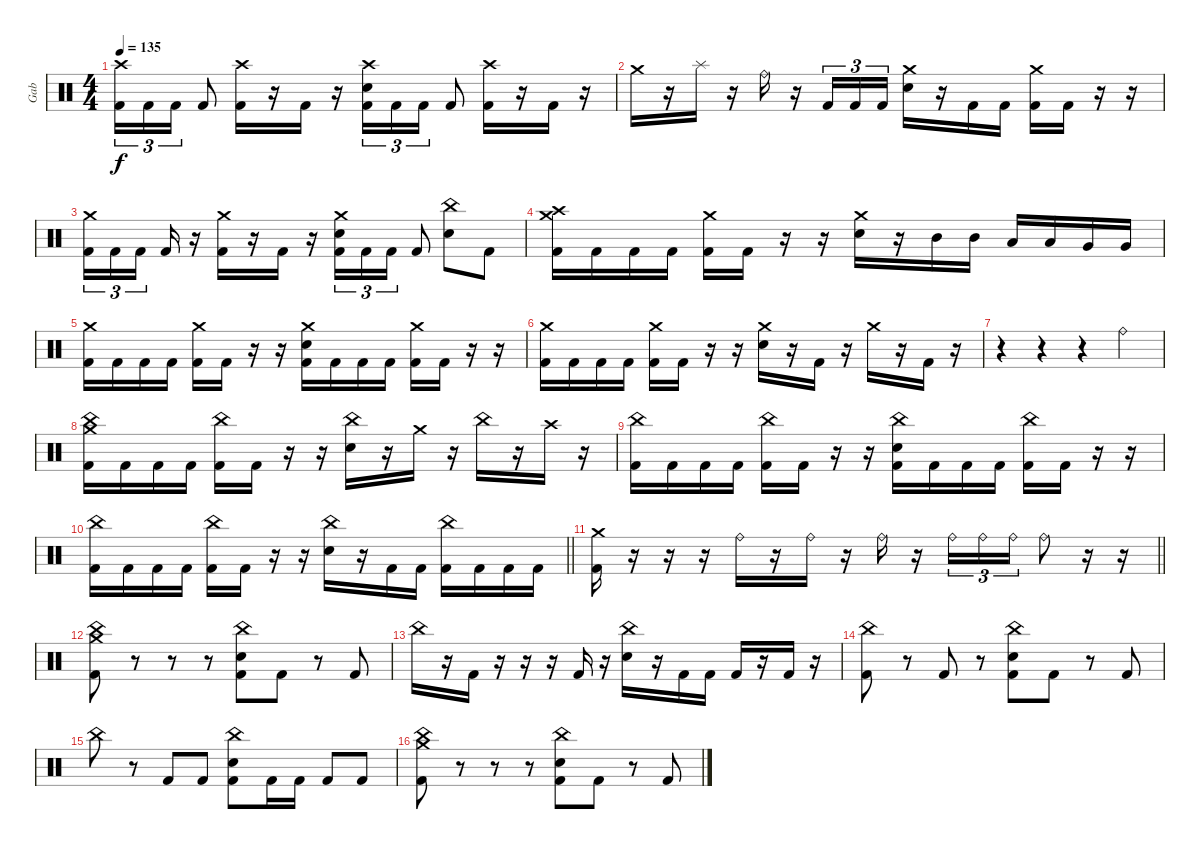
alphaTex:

\track ("Gab" "Gab") {instrument percussion}
\staff {score}
\articulation defaults
\ts (4 4)
\tempo 135
\clef neutral
\ks c
("Crash high (hit)" "Kick (hit) 2").16{tu (3 2) dy f} "Kick (hit) 2".16{tu (3 2)} "Kick (hit) 2".16{tu (3 2)} "Kick (hit) 2".8 ("Crash high (hit)" "Kick (hit) 2").16 r.16 "Kick (hit) 2".16 r.16 ("Crash high (hit)" "Electric Snare (hit)" "Kick (hit) 2").16{tu (3 2)} "Kick (hit) 2".16{tu (3 2)} "Kick (hit) 2".16{tu (3 2)} "Kick (hit) 2".8 ("Crash high (hit)" "Kick (hit) 2").16 r.16 "Kick (hit) 2".16 r.16 |
"Crash medium (hit)".16 r.16 "Splash (hit)".16 r.16 "Ride (bell)".16 r.16 "Kick (hit) 2".16{tu (3 2)} "Kick (hit) 2".16{tu (3 2)} "Kick (hit) 2".16{tu (3 2)} ("Crash medium (hit)" "Electric Snare (hit)").16 r.16 "Kick (hit) 2".16 "Kick (hit) 2".16 ("Crash medium (hit)" "Kick (hit) 2").16 "Kick (hit) 2".16 r.16 r.16 |
("Crash medium (hit)" "Kick (hit) 2").16{tu (3 2)} "Kick (hit) 2".16{tu (3 2)} "Kick (hit) 2".16{tu (3 2) beam splitsecondary} "Kick (hit) 2".16 r.16 ("Crash medium (hit)" "Kick (hit) 2").16 r.16 "Kick (hit) 2".16 r.16 ("Crash medium (hit)" "Electric Snare (hit)" "Kick (hit) 2").16{tu (3 2)} "Kick (hit) 2".16{tu (3 2)} "Kick (hit) 2".16{tu (3 2)} "Kick (hit) 2".8 ("China (hit)" "Electric Snare (hit)").8 "Kick (hit) 2".8 |
("Crash medium (hit)" "Crash high (hit)" "Kick (hit) 2").16 "Kick (hit) 2".16 "Kick (hit) 2".16 "Kick (hit) 2".16 ("Crash medium (hit)" "Kick (hit) 2").16 "Kick (hit) 2".16 r.16 r.16 ("Crash medium (hit)" "Electric Snare (hit)").16 r.16 "Mid Tom (hit)".16 "Mid Tom (hit)".16 "Low Tom (hit)".16 "Low Tom (hit)".16 "Very Low Tom (hit)".16 "Very Low Tom (hit)".16 |
("Crash medium (hit)" "Kick (hit) 2").16 "Kick (hit) 2".16 "Kick (hit) 2".16 "Kick (hit) 2".16 ("Crash medium (hit)" "Kick (hit) 2").16 "Kick (hit) 2".16 r.16 r.16 ("Crash medium (hit)" "Electric Snare (hit)" "Kick (hit) 2").16 "Kick (hit) 2".16 "Kick (hit) 2".16 "Kick (hit) 2".16 ("Crash medium (hit)" "Kick (hit) 2").16 "Kick (hit) 2".16 r.16 r.16 |
("Crash medium (hit)" "Kick (hit) 2").16 "Kick (hit) 2".16 "Kick (hit) 2".16 "Kick (hit) 2".16 ("Crash medium (hit)" "Kick (hit) 2").16 "Kick (hit) 2".16 r.16 r.16 ("Crash medium (hit)" "Electric Snare (hit)").16 r.16 "Kick (hit) 2".16 r.16 "Crash medium (hit)".16 r.16 "Kick (hit) 2".16 r.16 |
r.4 r.4 r.4 "Ride (bell)".4 |
("Crash medium (hit)" "China (hit)" "Kick (hit) 2").16 "Kick (hit) 2".16 "Kick (hit) 2".16 "Kick (hit) 2".16 ("China (hit)" "Kick (hit) 2").16 "Kick (hit) 2".16 r.16 r.16 ("China (hit)" "Electric Snare (hit)").16 r.16 "Crash medium (hit)".16 r.16 "China (hit)".16 r.16 "Crash high (hit)".16 r.16 |
("China (hit)" "Kick (hit) 2").16 "Kick (hit) 2".16 "Kick (hit) 2".16 "Kick (hit) 2".16 ("China (hit)" "Kick (hit) 2").16 "Kick (hit) 2".16 r.16 r.16 ("China (hit)" "Electric Snare (hit)" "Kick (hit) 2").16 "Kick (hit) 2".16 "Kick (hit) 2".16 "Kick (hit) 2".16 ("China (hit)" "Kick (hit) 2").16 "Kick (hit) 2".16 r.16 r.16 |
\barLineRight lightlight
("China (hit)" "Kick (hit) 2").16 "Kick (hit) 2".16 "Kick (hit) 2".16 "Kick (hit) 2".16 ("China (hit)" "Kick (hit) 2").16 "Kick (hit) 2".16 r.16 r.16 ("China (hit)" "Electric Snare (hit)").16 r.16 "Kick (hit) 2".16 "Kick (hit) 2".16 ("China (hit)" "Kick (hit) 2").16 "Kick (hit) 2".16 "Kick (hit) 2".16 "Kick (hit) 2".16 |
\barLineRight lightlight
("Crash medium (hit)" "Kick (hit) 2").16 r.16 r.16 r.16 "Ride (bell)".16 r.16 "Ride (bell)".16 r.16 "Ride (bell)".16 r.16 "Ride (bell)".16{tu (3 2)} "Ride (bell)".16{tu (3 2)} "Ride (bell)".16{tu (3 2)} "Ride (bell)".8 r.16 r.16 |
("Crash medium (hit)" "China (hit)" "Kick (hit) 2").8 r.8 r.8 r.8 ("China (hit)" "Electric Snare (hit)" "Kick (hit) 2").8 "Kick (hit) 2".8 r.8 "Kick (hit) 2".8 |
"China (hit)".16 r.16 "Kick (hit) 2".16 r.16 r.16 r.16 "Kick (hit) 2".16 r.16 ("China (hit)" "Electric Snare (hit)").16 r.16 "Kick (hit) 2".16 "Kick (hit) 2".16 "Kick (hit) 2".16 r.16 "Kick (hit) 2".16 r.16 |
("China (hit)" "Kick (hit) 2").8 r.8 "Kick (hit) 2".8 r.8 ("China (hit)" "Electric Snare (hit)" "Kick (hit) 2").8 "Kick (hit) 2".8 r.8 "Kick (hit) 2".8 |
"China (hit)".8 r.8 "Kick (hit) 2".8 "Kick (hit) 2".8 ("China (hit)" "Electric Snare (hit)" "Kick (hit) 2").8 "Kick (hit) 2".16 "Kick (hit) 2".16 "Kick (hit) 2".8 "Kick (hit) 2".8 |
("Crash medium (hit)" "China (hit)" "Kick (hit) 2").8 r.8 r.8 r.8 ("China (hit)" "Electric Snare (hit)" "Kick (hit) 2").8 "Kick (hit) 2".8 r.8 "Kick (hit) 2".8
